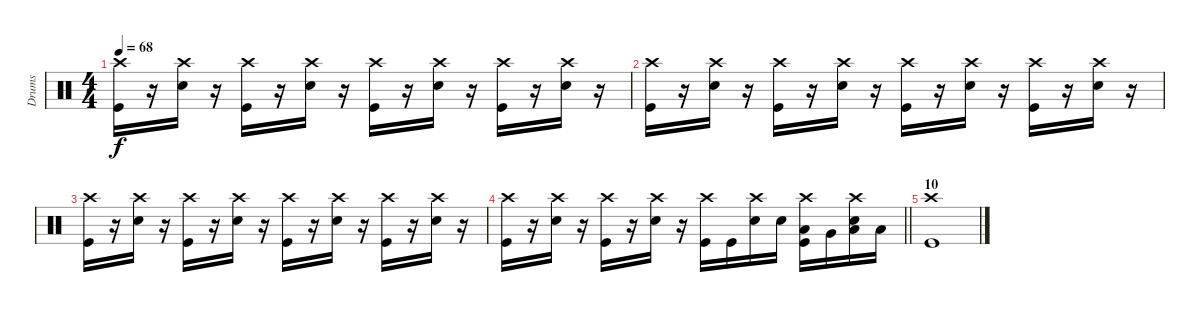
\track ("Drums" "Drums") {instrument percussion}
\staff {score}
\articulation defaults
\ts (4 4)
\tempo 68
\clef neutral
\ks c
("Crash high (hit)" "Kick (hit)").16{dy f} r.16 ("Crash high (hit)" "Snare (hit) 2").16 r.16 ("Crash high (hit)" "Kick (hit)").16 r.16 ("Crash high (hit)" "Snare (hit) 2").16 r.16 ("Crash high (hit)" "Kick (hit)").16 r.16 ("Crash high (hit)" "Snare (hit) 2").16 r.16 ("Crash high (hit)" "Kick (hit)").16 r.16 ("Crash high (hit)" "Snare (hit) 2").16 r.16 |
("Crash high (hit)" "Kick (hit)").16 r.16 ("Crash high (hit)" "Snare (hit) 2").16 r.16 ("Crash high (hit)" "Kick (hit)").16 r.16 ("Crash high (hit)" "Snare (hit) 2").16 r.16 ("Crash high (hit)" "Kick (hit)").16 r.16 ("Crash high (hit)" "Snare (hit) 2").16 r.16 ("Crash high (hit)" "Kick (hit)").16 r.16 ("Crash high (hit)" "Snare (hit) 2").16 r.16 |
("Crash high (hit)" "Kick (hit)").16 r.16 ("Crash high (hit)" "Snare (hit) 2").16 r.16 ("Crash high (hit)" "Kick (hit)").16 r.16 ("Crash high (hit)" "Snare (hit) 2").16 r.16 ("Crash high (hit)" "Kick (hit)").16 r.16 ("Crash high (hit)" "Snare (hit) 2").16 r.16 ("Crash high (hit)" "Kick (hit)").16 r.16 ("Crash high (hit)" "Snare (hit) 2").16 r.16 |
\barLineRight lightlight
("Crash high (hit)" "Kick (hit)").16 r.16 ("Crash high (hit)" "Snare (hit) 2").16 r.16 ("Crash high (hit)" "Kick (hit)").16 r.16 ("Crash high (hit)" "Snare (hit) 2").16 r.16 ("Crash high (hit)" "Kick (hit)").16 "Kick (hit)".16 ("Crash high (hit)" "Snare (hit) 2").16 "Snare (hit) 2".16 ("Crash high (hit)" "Low Tom (hit)" "Kick (hit)").16 "Very Low Tom (hit)".16 ("Crash high (hit)" "Low Floor Tom (hit)" "Snare (hit) 2").16 "Low Floor Tom (hit)".16 |
\section ("" "10")
("Crash high (hit)" "Kick (hit)").1
